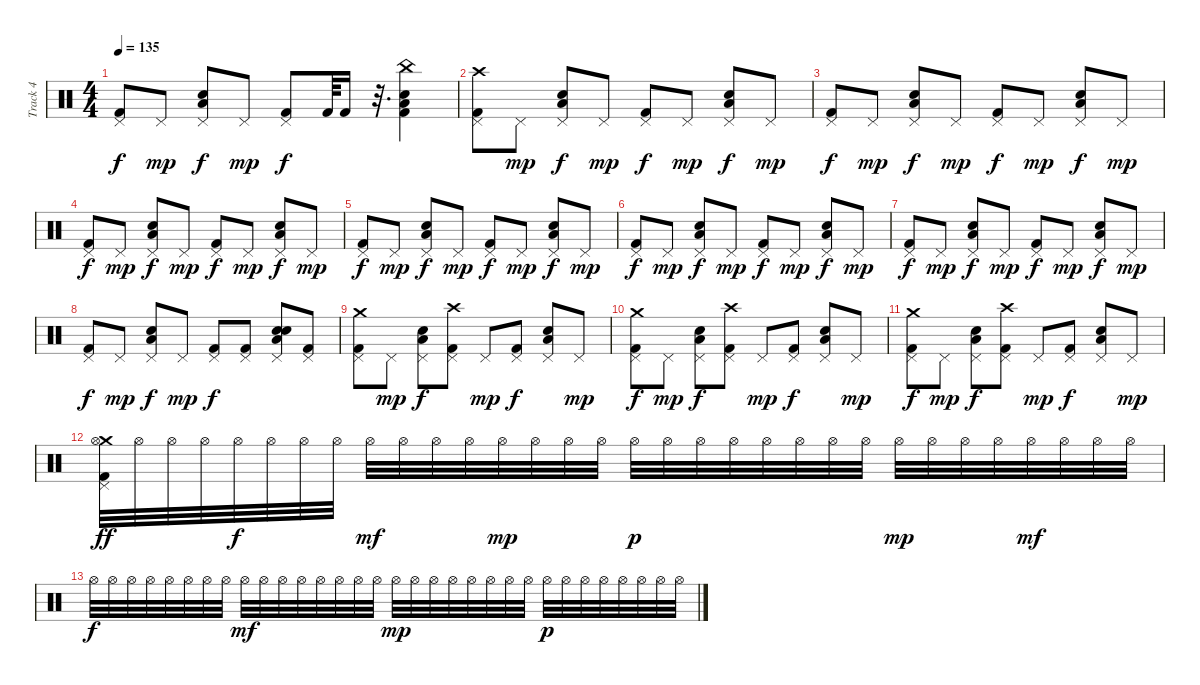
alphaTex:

\track ("Track 4" "Track 4") {instrument percussion}
\staff {score}
\articulation defaults
\ts (4 4)
\tempo 135
\clef neutral
\ks c
("Pedal Hi-Hat (hit)" "Kick (hit) 2").8{dy f} "Pedal Hi-Hat (hit)".8{dy mp} ("Pedal Hi-Hat (hit)" "Low Tom (hit)" "Electric Snare (hit)").8{dy f} "Pedal Hi-Hat (hit)".8{dy mp} ("Pedal Hi-Hat (hit)" "Kick (hit) 2").8{dy f} "Kick (hit) 2".64 "Kick (hit) 2".16 r.32{d} ("Low Tom (hit)" "Snare (hit) 2" "Kick (hit) 2" "China (hit)").4 |
("Pedal Hi-Hat (hit)" "Kick (hit) 2" "Crash high (hit)").8 "Pedal Hi-Hat (hit)".8{dy mp} ("Pedal Hi-Hat (hit)" "Low Tom (hit)" "Electric Snare (hit)").8{dy f} "Pedal Hi-Hat (hit)".8{dy mp} ("Pedal Hi-Hat (hit)" "Kick (hit) 2").8{dy f} "Pedal Hi-Hat (hit)".8{dy mp} ("Pedal Hi-Hat (hit)" "Low Tom (hit)" "Electric Snare (hit)").8{dy f} "Pedal Hi-Hat (hit)".8{dy mp} |
("Pedal Hi-Hat (hit)" "Kick (hit) 2").8{dy f} "Pedal Hi-Hat (hit)".8{dy mp} ("Pedal Hi-Hat (hit)" "Low Tom (hit)" "Electric Snare (hit)").8{dy f} "Pedal Hi-Hat (hit)".8{dy mp} ("Pedal Hi-Hat (hit)" "Kick (hit) 2").8{dy f} "Pedal Hi-Hat (hit)".8{dy mp} ("Pedal Hi-Hat (hit)" "Low Tom (hit)" "Electric Snare (hit)").8{dy f} "Pedal Hi-Hat (hit)".8{dy mp} |
("Pedal Hi-Hat (hit)" "Kick (hit) 2").8{dy f} "Pedal Hi-Hat (hit)".8{dy mp} ("Pedal Hi-Hat (hit)" "Low Tom (hit)" "Electric Snare (hit)").8{dy f} "Pedal Hi-Hat (hit)".8{dy mp} ("Pedal Hi-Hat (hit)" "Kick (hit) 2").8{dy f} "Pedal Hi-Hat (hit)".8{dy mp} ("Pedal Hi-Hat (hit)" "Low Tom (hit)" "Electric Snare (hit)").8{dy f} "Pedal Hi-Hat (hit)".8{dy mp} |
("Pedal Hi-Hat (hit)" "Kick (hit) 2").8{dy f} "Pedal Hi-Hat (hit)".8{dy mp} ("Pedal Hi-Hat (hit)" "Low Tom (hit)" "Electric Snare (hit)").8{dy f} "Pedal Hi-Hat (hit)".8{dy mp} ("Pedal Hi-Hat (hit)" "Kick (hit) 2").8{dy f} "Pedal Hi-Hat (hit)".8{dy mp} ("Pedal Hi-Hat (hit)" "Low Tom (hit)" "Electric Snare (hit)").8{dy f} "Pedal Hi-Hat (hit)".8{dy mp} |
("Pedal Hi-Hat (hit)" "Kick (hit) 2").8{dy f} "Pedal Hi-Hat (hit)".8{dy mp} ("Pedal Hi-Hat (hit)" "Low Tom (hit)" "Electric Snare (hit)").8{dy f} "Pedal Hi-Hat (hit)".8{dy mp} ("Pedal Hi-Hat (hit)" "Kick (hit) 2").8{dy f} "Pedal Hi-Hat (hit)".8{dy mp} ("Pedal Hi-Hat (hit)" "Low Tom (hit)" "Electric Snare (hit)").8{dy f} "Pedal Hi-Hat (hit)".8{dy mp} |
("Pedal Hi-Hat (hit)" "Kick (hit) 2").8{dy f} "Pedal Hi-Hat (hit)".8{dy mp} ("Pedal Hi-Hat (hit)" "Low Tom (hit)" "Electric Snare (hit)").8{dy f} "Pedal Hi-Hat (hit)".8{dy mp} ("Pedal Hi-Hat (hit)" "Kick (hit) 2").8{dy f} "Pedal Hi-Hat (hit)".8{dy mp} ("Pedal Hi-Hat (hit)" "Low Tom (hit)" "Electric Snare (hit)").8{dy f} "Pedal Hi-Hat (hit)".8{dy mp} |
("Pedal Hi-Hat (hit)" "Kick (hit) 2").8{dy f} "Pedal Hi-Hat (hit)".8{dy mp} ("Pedal Hi-Hat (hit)" "Low Tom (hit)" "Electric Snare (hit)").8{dy f} "Pedal Hi-Hat (hit)".8{dy mp} ("Pedal Hi-Hat (hit)" "Kick (hit) 2").8{dy f} ("Pedal Hi-Hat (hit)" "Kick (hit) 2").8 ("Pedal Hi-Hat (hit)" "Low Tom (hit)" "Electric Snare (hit)" "Snare (hit) 2").8 ("Pedal Hi-Hat (hit)" "Kick (hit) 2").8 |
("Pedal Hi-Hat (hit)" "Kick (hit) 2" "Crash medium (hit)").8 "Pedal Hi-Hat (hit)".8{dy mp} ("Pedal Hi-Hat (hit)" "Low Tom (hit)" "Electric Snare (hit)").8{dy f} ("Pedal Hi-Hat (hit)" "Kick (hit) 2" "Crash high (hit)").8 "Pedal Hi-Hat (hit)".8{dy mp} ("Pedal Hi-Hat (hit)" "Kick (hit) 2").8{dy f} ("Pedal Hi-Hat (hit)" "Low Tom (hit)" "Electric Snare (hit)").8 "Pedal Hi-Hat (hit)".8{dy mp} |
("Pedal Hi-Hat (hit)" "Kick (hit) 2" "Crash medium (hit)").8{dy f} "Pedal Hi-Hat (hit)".8{dy mp} ("Pedal Hi-Hat (hit)" "Low Tom (hit)" "Electric Snare (hit)").8{dy f} ("Pedal Hi-Hat (hit)" "Kick (hit) 2" "Crash high (hit)").8 "Pedal Hi-Hat (hit)".8{dy mp} ("Pedal Hi-Hat (hit)" "Kick (hit) 2").8{dy f} ("Pedal Hi-Hat (hit)" "Low Tom (hit)" "Electric Snare (hit)").8 "Pedal Hi-Hat (hit)".8{dy mp} |
("Pedal Hi-Hat (hit)" "Kick (hit) 2" "Crash medium (hit)").8{dy f} "Pedal Hi-Hat (hit)".8{dy mp} ("Pedal Hi-Hat (hit)" "Low Tom (hit)" "Electric Snare (hit)").8{dy f} ("Pedal Hi-Hat (hit)" "Kick (hit) 2" "Crash high (hit)").8 "Pedal Hi-Hat (hit)".8{dy mp} ("Pedal Hi-Hat (hit)" "Kick (hit) 2").8{dy f} ("Pedal Hi-Hat (hit)" "Low Tom (hit)" "Electric Snare (hit)").8 "Pedal Hi-Hat (hit)".8{dy mp} |
("Pedal Hi-Hat (hit)" "Kick (hit) 2" "Crash medium (hit)" "Hi-Hat (open)").32{dy ff} "Hi-Hat (open)".32 "Hi-Hat (open)".32 "Hi-Hat (open)".32 "Hi-Hat (open)".32{dy f} "Hi-Hat (open)".32 "Hi-Hat (open)".32 "Hi-Hat (open)".32 "Hi-Hat (open)".32{dy mf} "Hi-Hat (open)".32 "Hi-Hat (open)".32 "Hi-Hat (open)".32 "Hi-Hat (open)".32{dy mp} "Hi-Hat (open)".32 "Hi-Hat (open)".32 "Hi-Hat (open)".32 "Hi-Hat (open)".32{dy p} "Hi-Hat (open)".32 "Hi-Hat (open)".32 "Hi-Hat (open)".32 "Hi-Hat (open)".32 "Hi-Hat (open)".32 "Hi-Hat (open)".32 "Hi-Hat (open)".32 "Hi-Hat (open)".32{dy mp} "Hi-Hat (open)".32 "Hi-Hat (open)".32 "Hi-Hat (open)".32 "Hi-Hat (open)".32{dy mf} "Hi-Hat (open)".32 "Hi-Hat (open)".32 "Hi-Hat (open)".32 |
"Hi-Hat (open)".32{dy f} "Hi-Hat (open)".32 "Hi-Hat (open)".32 "Hi-Hat (open)".32 "Hi-Hat (open)".32 "Hi-Hat (open)".32 "Hi-Hat (open)".32 "Hi-Hat (open)".32 "Hi-Hat (open)".32{dy mf} "Hi-Hat (open)".32 "Hi-Hat (open)".32 "Hi-Hat (open)".32 "Hi-Hat (open)".32 "Hi-Hat (open)".32 "Hi-Hat (open)".32 "Hi-Hat (open)".32 "Hi-Hat (open)".32{dy mp} "Hi-Hat (open)".32 "Hi-Hat (open)".32 "Hi-Hat (open)".32 "Hi-Hat (open)".32 "Hi-Hat (open)".32 "Hi-Hat (open)".32 "Hi-Hat (open)".32 "Hi-Hat (open)".32{dy p} "Hi-Hat (open)".32 "Hi-Hat (open)".32 "Hi-Hat (open)".32 "Hi-Hat (open)".32 "Hi-Hat (open)".32 "Hi-Hat (open)".32 "Hi-Hat (open)".32
